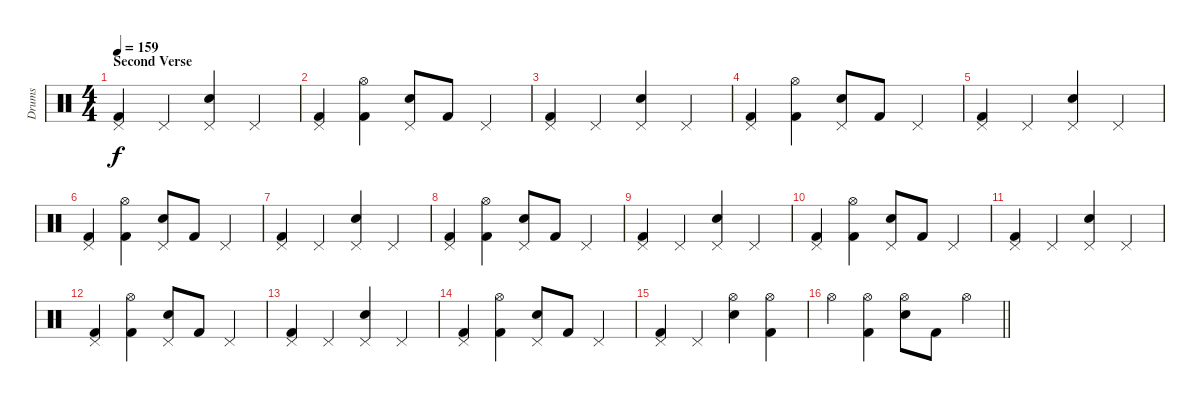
\track ("Drums" "Drums") {instrument percussion}
\staff {score}
\articulation defaults
\ts (4 4)
\section ("" "Second Verse")
\tempo 159
\clef neutral
\ks c
("Pedal Hi-Hat (hit)" "Kick (hit) 2").4{dy f} "Pedal Hi-Hat (hit)".4 ("Pedal Hi-Hat (hit)" "Snare (hit) 2").4 "Pedal Hi-Hat (hit)".4 |
("Pedal Hi-Hat (hit)" "Kick (hit) 2").4 ("Hi-Hat (open)" "Kick (hit) 2").4 ("Pedal Hi-Hat (hit)" "Snare (hit) 2").8 "Kick (hit) 2".8 "Pedal Hi-Hat (hit)".4 |
("Pedal Hi-Hat (hit)" "Kick (hit) 2").4 "Pedal Hi-Hat (hit)".4 ("Pedal Hi-Hat (hit)" "Snare (hit) 2").4 "Pedal Hi-Hat (hit)".4 |
("Pedal Hi-Hat (hit)" "Kick (hit) 2").4 ("Hi-Hat (open)" "Kick (hit) 2").4 ("Pedal Hi-Hat (hit)" "Snare (hit) 2").8 "Kick (hit) 2".8 "Pedal Hi-Hat (hit)".4 |
("Pedal Hi-Hat (hit)" "Kick (hit) 2").4 "Pedal Hi-Hat (hit)".4 ("Pedal Hi-Hat (hit)" "Snare (hit) 2").4 "Pedal Hi-Hat (hit)".4 |
("Pedal Hi-Hat (hit)" "Kick (hit) 2").4 ("Hi-Hat (open)" "Kick (hit) 2").4 ("Pedal Hi-Hat (hit)" "Snare (hit) 2").8 "Kick (hit) 2".8 "Pedal Hi-Hat (hit)".4 |
("Pedal Hi-Hat (hit)" "Kick (hit) 2").4 "Pedal Hi-Hat (hit)".4 ("Pedal Hi-Hat (hit)" "Snare (hit) 2").4 "Pedal Hi-Hat (hit)".4 |
("Pedal Hi-Hat (hit)" "Kick (hit) 2").4 ("Hi-Hat (open)" "Kick (hit) 2").4 ("Pedal Hi-Hat (hit)" "Snare (hit) 2").8 "Kick (hit) 2".8 "Pedal Hi-Hat (hit)".4 |
("Pedal Hi-Hat (hit)" "Kick (hit) 2").4 "Pedal Hi-Hat (hit)".4 ("Pedal Hi-Hat (hit)" "Snare (hit) 2").4 "Pedal Hi-Hat (hit)".4 |
("Pedal Hi-Hat (hit)" "Kick (hit) 2").4 ("Hi-Hat (open)" "Kick (hit) 2").4 ("Pedal Hi-Hat (hit)" "Snare (hit) 2").8 "Kick (hit) 2".8 "Pedal Hi-Hat (hit)".4 |
("Pedal Hi-Hat (hit)" "Kick (hit) 2").4 "Pedal Hi-Hat (hit)".4 ("Pedal Hi-Hat (hit)" "Snare (hit) 2").4 "Pedal Hi-Hat (hit)".4 |
("Pedal Hi-Hat (hit)" "Kick (hit) 2").4 ("Hi-Hat (open)" "Kick (hit) 2").4 ("Pedal Hi-Hat (hit)" "Snare (hit) 2").8 "Kick (hit) 2".8 "Pedal Hi-Hat (hit)".4 |
("Pedal Hi-Hat (hit)" "Kick (hit) 2").4 "Pedal Hi-Hat (hit)".4 ("Pedal Hi-Hat (hit)" "Snare (hit) 2").4 "Pedal Hi-Hat (hit)".4 |
("Pedal Hi-Hat (hit)" "Kick (hit) 2").4 ("Hi-Hat (open)" "Kick (hit) 2").4 ("Pedal Hi-Hat (hit)" "Snare (hit) 2").8 "Kick (hit) 2".8 "Pedal Hi-Hat (hit)".4 |
("Pedal Hi-Hat (hit)" "Kick (hit) 2").4 "Pedal Hi-Hat (hit)".4 ("Hi-Hat (open)" "Snare (hit) 2").4 ("Hi-Hat (open)" "Kick (hit) 2").4 |
\barLineRight lightlight "Hi-Hat (open)".4
("Hi-Hat (open)" "Kick (hit) 2").4 ("Hi-Hat (open)" "Snare (hit) 2").8 "Kick (hit) 2".8 "Hi-Hat (open)".4
